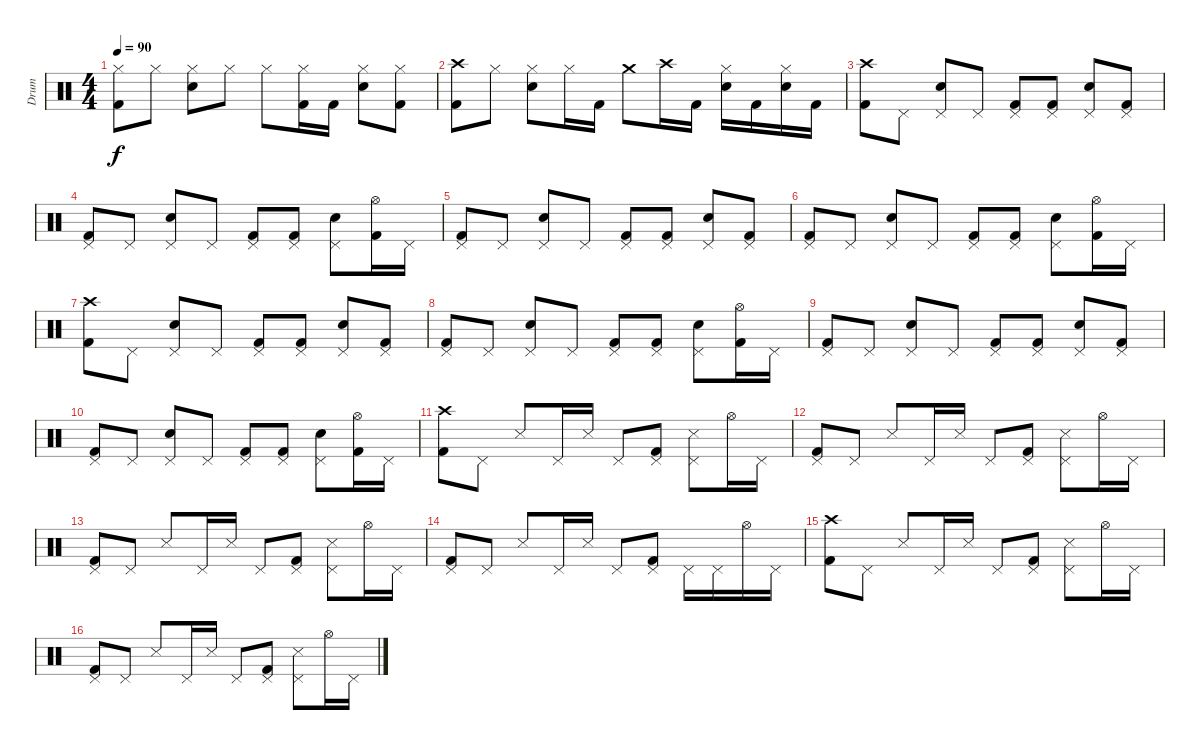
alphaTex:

\track ("Drum" "Drum") {instrument percussion}
\staff {score}
\articulation defaults
\ts (4 4)
\tempo 90
\clef neutral
\ks c
("Hi-Hat (closed)" "Kick (hit) 2").8{dy f} "Hi-Hat (closed)".8 ("Hi-Hat (closed)" "Electric Snare (hit)").8 "Hi-Hat (closed)".8 "Hi-Hat (closed)".8 ("Hi-Hat (closed)" "Kick (hit) 2").16 "Kick (hit) 2".16 ("Hi-Hat (closed)" "Electric Snare (hit)").8 ("Hi-Hat (closed)" "Kick (hit) 2").8 |
\ks aminor
("Crash high (hit)" "Kick (hit) 2").8 "Hi-Hat (closed)".8 ("Hi-Hat (closed)" "Electric Snare (hit)").8 "Hi-Hat (closed)".16 "Kick (hit) 2".16 "Crash medium (hit)".8 "Crash high (hit)".16 "Kick (hit) 2".16 ("Hi-Hat (closed)" "Electric Snare (hit)").16 "Kick (hit) 2".16 ("Hi-Hat (closed)" "Electric Snare (hit)").16 "Kick (hit) 2".16 |
("Crash high (hit)" "Kick (hit) 2").8 "Pedal Hi-Hat (hit)".8 ("Pedal Hi-Hat (hit)" "Electric Snare (hit)").8 "Pedal Hi-Hat (hit)".8 ("Pedal Hi-Hat (hit)" "Kick (hit) 2").8 ("Pedal Hi-Hat (hit)" "Kick (hit) 2").8 ("Pedal Hi-Hat (hit)" "Electric Snare (hit)").8 ("Pedal Hi-Hat (hit)" "Kick (hit) 2").8 |
("Pedal Hi-Hat (hit)" "Kick (hit) 2").8 "Pedal Hi-Hat (hit)".8 ("Pedal Hi-Hat (hit)" "Electric Snare (hit)").8 "Pedal Hi-Hat (hit)".8 ("Pedal Hi-Hat (hit)" "Kick (hit) 2").8 ("Pedal Hi-Hat (hit)" "Kick (hit) 2").8 ("Pedal Hi-Hat (hit)" "Electric Snare (hit)").8 ("Hi-Hat (open)" "Kick (hit) 2").16 "Pedal Hi-Hat (hit)".16 |
("Pedal Hi-Hat (hit)" "Kick (hit) 2").8 "Pedal Hi-Hat (hit)".8 ("Pedal Hi-Hat (hit)" "Electric Snare (hit)").8 "Pedal Hi-Hat (hit)".8 ("Pedal Hi-Hat (hit)" "Kick (hit) 2").8 ("Pedal Hi-Hat (hit)" "Kick (hit) 2").8 ("Pedal Hi-Hat (hit)" "Electric Snare (hit)").8 ("Pedal Hi-Hat (hit)" "Kick (hit) 2").8 |
("Pedal Hi-Hat (hit)" "Kick (hit) 2").8 "Pedal Hi-Hat (hit)".8 ("Pedal Hi-Hat (hit)" "Electric Snare (hit)").8 "Pedal Hi-Hat (hit)".8 ("Pedal Hi-Hat (hit)" "Kick (hit) 2").8 ("Pedal Hi-Hat (hit)" "Kick (hit) 2").8 ("Pedal Hi-Hat (hit)" "Electric Snare (hit)").8 ("Hi-Hat (open)" "Kick (hit) 2").16 "Pedal Hi-Hat (hit)".16 |
("Crash high (hit)" "Kick (hit) 2").8 "Pedal Hi-Hat (hit)".8 ("Pedal Hi-Hat (hit)" "Electric Snare (hit)").8 "Pedal Hi-Hat (hit)".8 ("Pedal Hi-Hat (hit)" "Kick (hit) 2").8 ("Pedal Hi-Hat (hit)" "Kick (hit) 2").8 ("Pedal Hi-Hat (hit)" "Electric Snare (hit)").8 ("Pedal Hi-Hat (hit)" "Kick (hit) 2").8 |
("Pedal Hi-Hat (hit)" "Kick (hit) 2").8 "Pedal Hi-Hat (hit)".8 ("Pedal Hi-Hat (hit)" "Electric Snare (hit)").8 "Pedal Hi-Hat (hit)".8 ("Pedal Hi-Hat (hit)" "Kick (hit) 2").8 ("Pedal Hi-Hat (hit)" "Kick (hit) 2").8 ("Pedal Hi-Hat (hit)" "Electric Snare (hit)").8 ("Hi-Hat (open)" "Kick (hit) 2").16 "Pedal Hi-Hat (hit)".16 |
("Pedal Hi-Hat (hit)" "Kick (hit) 2").8 "Pedal Hi-Hat (hit)".8 ("Pedal Hi-Hat (hit)" "Electric Snare (hit)").8 "Pedal Hi-Hat (hit)".8 ("Pedal Hi-Hat (hit)" "Kick (hit) 2").8 ("Pedal Hi-Hat (hit)" "Kick (hit) 2").8 ("Pedal Hi-Hat (hit)" "Electric Snare (hit)").8 ("Pedal Hi-Hat (hit)" "Kick (hit) 2").8 |
("Pedal Hi-Hat (hit)" "Kick (hit) 2").8 "Pedal Hi-Hat (hit)".8 ("Pedal Hi-Hat (hit)" "Electric Snare (hit)").8 "Pedal Hi-Hat (hit)".8 ("Pedal Hi-Hat (hit)" "Kick (hit) 2").8 ("Pedal Hi-Hat (hit)" "Kick (hit) 2").8 ("Pedal Hi-Hat (hit)" "Electric Snare (hit)").8 ("Hi-Hat (open)" "Kick (hit) 2").16 "Pedal Hi-Hat (hit)".16 |
("Crash high (hit)" "Kick (hit) 2").8 "Pedal Hi-Hat (hit)".8 "Metronome (hit)".8 "Pedal Hi-Hat (hit)".16 "Metronome (hit)".16 "Pedal Hi-Hat (hit)".8 ("Pedal Hi-Hat (hit)" "Kick (hit) 2").8 ("Pedal Hi-Hat (hit)" "Metronome (hit)").8 "Hi-Hat (open)".16 "Pedal Hi-Hat (hit)".16 |
("Pedal Hi-Hat (hit)" "Kick (hit) 2").8 "Pedal Hi-Hat (hit)".8 "Metronome (hit)".8 "Pedal Hi-Hat (hit)".16 "Metronome (hit)".16 "Pedal Hi-Hat (hit)".8 ("Pedal Hi-Hat (hit)" "Kick (hit) 2").8 ("Pedal Hi-Hat (hit)" "Metronome (hit)").8 "Hi-Hat (open)".16 "Pedal Hi-Hat (hit)".16 |
("Pedal Hi-Hat (hit)" "Kick (hit) 2").8 "Pedal Hi-Hat (hit)".8 "Metronome (hit)".8 "Pedal Hi-Hat (hit)".16 "Metronome (hit)".16 "Pedal Hi-Hat (hit)".8 ("Pedal Hi-Hat (hit)" "Kick (hit) 2").8 ("Pedal Hi-Hat (hit)" "Metronome (hit)").8 "Hi-Hat (open)".16 "Pedal Hi-Hat (hit)".16 |
("Pedal Hi-Hat (hit)" "Kick (hit) 2").8 "Pedal Hi-Hat (hit)".8 "Metronome (hit)".8 "Pedal Hi-Hat (hit)".16 "Metronome (hit)".16 "Pedal Hi-Hat (hit)".8 ("Pedal Hi-Hat (hit)" "Kick (hit) 2").8 "Pedal Hi-Hat (hit)".16 "Pedal Hi-Hat (hit)".16 "Hi-Hat (open)".16 "Pedal Hi-Hat (hit)".16 |
("Crash high (hit)" "Kick (hit) 2").8 "Pedal Hi-Hat (hit)".8 "Metronome (hit)".8 "Pedal Hi-Hat (hit)".16 "Metronome (hit)".16 "Pedal Hi-Hat (hit)".8 ("Pedal Hi-Hat (hit)" "Kick (hit) 2").8 ("Pedal Hi-Hat (hit)" "Metronome (hit)").8 "Hi-Hat (open)".16 "Pedal Hi-Hat (hit)".16 |
("Pedal Hi-Hat (hit)" "Kick (hit) 2").8 "Pedal Hi-Hat (hit)".8 "Metronome (hit)".8 "Pedal Hi-Hat (hit)".16 "Metronome (hit)".16 "Pedal Hi-Hat (hit)".8 ("Pedal Hi-Hat (hit)" "Kick (hit) 2").8 ("Pedal Hi-Hat (hit)" "Metronome (hit)").8 "Hi-Hat (open)".16 "Pedal Hi-Hat (hit)".16
